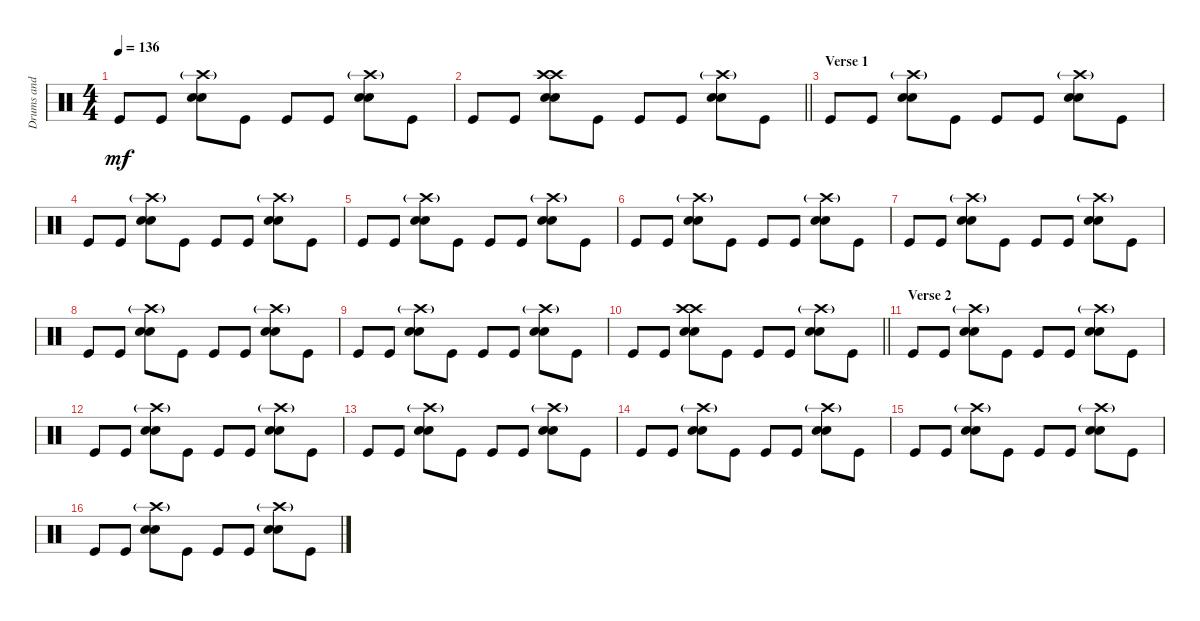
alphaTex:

\track ("Drums and Percussions" "Drums and ") {instrument percussion}
\staff {score}
\articulation defaults
\ts (4 4)
\tempo 136
\clef neutral
\ks c "Kick (hit)".8{dy mf} "Kick (hit)".8
("Crash high (hit)"{g} "Electric Snare (hit)" "Electric Snare (hit)").8 "Kick (hit)".8 "Kick (hit)".8 "Kick (hit)".8 ("Crash high (hit)"{g} "Electric Snare (hit)" "Electric Snare (hit)").8 "Kick (hit)".8 |
\barLineRight lightlight "Kick (hit)".8 "Kick (hit)".8
("Crash high (hit)" "Crash high (hit)" "Electric Snare (hit)" "Electric Snare (hit)").8 "Kick (hit)".8 "Kick (hit)".8 "Kick (hit)".8 ("Crash high (hit)"{g} "Electric Snare (hit)" "Electric Snare (hit)").8 "Kick (hit)".8 |
\section ("" "Verse 1")
"Kick (hit)".8 "Kick (hit)".8 ("Crash high (hit)"{g} "Electric Snare (hit)" "Electric Snare (hit)").8 "Kick (hit)".8 "Kick (hit)".8 "Kick (hit)".8 ("Crash high (hit)"{g} "Electric Snare (hit)" "Electric Snare (hit)").8 "Kick (hit)".8 |
"Kick (hit)".8 "Kick (hit)".8 ("Crash high (hit)"{g} "Electric Snare (hit)" "Electric Snare (hit)").8 "Kick (hit)".8 "Kick (hit)".8 "Kick (hit)".8 ("Crash high (hit)"{g} "Electric Snare (hit)" "Electric Snare (hit)").8 "Kick (hit)".8 |
"Kick (hit)".8 "Kick (hit)".8 ("Crash high (hit)"{g} "Electric Snare (hit)" "Electric Snare (hit)").8 "Kick (hit)".8 "Kick (hit)".8 "Kick (hit)".8 ("Crash high (hit)"{g} "Electric Snare (hit)" "Electric Snare (hit)").8 "Kick (hit)".8 |
"Kick (hit)".8 "Kick (hit)".8 ("Crash high (hit)"{g} "Electric Snare (hit)" "Electric Snare (hit)").8 "Kick (hit)".8 "Kick (hit)".8 "Kick (hit)".8 ("Crash high (hit)"{g} "Electric Snare (hit)" "Electric Snare (hit)").8 "Kick (hit)".8 |
"Kick (hit)".8 "Kick (hit)".8 ("Crash high (hit)"{g} "Electric Snare (hit)" "Electric Snare (hit)").8 "Kick (hit)".8 "Kick (hit)".8 "Kick (hit)".8 ("Crash high (hit)"{g} "Electric Snare (hit)" "Electric Snare (hit)").8 "Kick (hit)".8 |
"Kick (hit)".8 "Kick (hit)".8 ("Crash high (hit)"{g} "Electric Snare (hit)" "Electric Snare (hit)").8 "Kick (hit)".8 "Kick (hit)".8 "Kick (hit)".8 ("Crash high (hit)"{g} "Electric Snare (hit)" "Electric Snare (hit)").8 "Kick (hit)".8 |
"Kick (hit)".8 "Kick (hit)".8 ("Crash high (hit)"{g} "Electric Snare (hit)" "Electric Snare (hit)").8 "Kick (hit)".8 "Kick (hit)".8 "Kick (hit)".8 ("Crash high (hit)"{g} "Electric Snare (hit)" "Electric Snare (hit)").8 "Kick (hit)".8 |
\barLineRight lightlight "Kick (hit)".8 "Kick (hit)".8
("Crash high (hit)" "Crash high (hit)" "Electric Snare (hit)" "Electric Snare (hit)").8 "Kick (hit)".8 "Kick (hit)".8 "Kick (hit)".8 ("Crash high (hit)"{g} "Electric Snare (hit)" "Electric Snare (hit)").8 "Kick (hit)".8 |
\section ("" "Verse 2")
"Kick (hit)".8 "Kick (hit)".8 ("Crash high (hit)"{g} "Electric Snare (hit)" "Electric Snare (hit)").8 "Kick (hit)".8 "Kick (hit)".8 "Kick (hit)".8 ("Crash high (hit)"{g} "Electric Snare (hit)" "Electric Snare (hit)").8 "Kick (hit)".8 |
"Kick (hit)".8 "Kick (hit)".8 ("Crash high (hit)"{g} "Electric Snare (hit)" "Electric Snare (hit)").8 "Kick (hit)".8 "Kick (hit)".8 "Kick (hit)".8 ("Crash high (hit)"{g} "Electric Snare (hit)" "Electric Snare (hit)").8 "Kick (hit)".8 |
"Kick (hit)".8 "Kick (hit)".8 ("Crash high (hit)"{g} "Electric Snare (hit)" "Electric Snare (hit)").8 "Kick (hit)".8 "Kick (hit)".8 "Kick (hit)".8 ("Crash high (hit)"{g} "Electric Snare (hit)" "Electric Snare (hit)").8 "Kick (hit)".8 |
"Kick (hit)".8 "Kick (hit)".8 ("Crash high (hit)"{g} "Electric Snare (hit)" "Electric Snare (hit)").8 "Kick (hit)".8 "Kick (hit)".8 "Kick (hit)".8 ("Crash high (hit)"{g} "Electric Snare (hit)" "Electric Snare (hit)").8 "Kick (hit)".8 |
"Kick (hit)".8 "Kick (hit)".8 ("Crash high (hit)"{g} "Electric Snare (hit)" "Electric Snare (hit)").8 "Kick (hit)".8 "Kick (hit)".8 "Kick (hit)".8 ("Crash high (hit)"{g} "Electric Snare (hit)" "Electric Snare (hit)").8 "Kick (hit)".8 |
"Kick (hit)".8 "Kick (hit)".8 ("Crash high (hit)"{g} "Electric Snare (hit)" "Electric Snare (hit)").8 "Kick (hit)".8 "Kick (hit)".8 "Kick (hit)".8 ("Crash high (hit)"{g} "Electric Snare (hit)" "Electric Snare (hit)").8 "Kick (hit)".8
